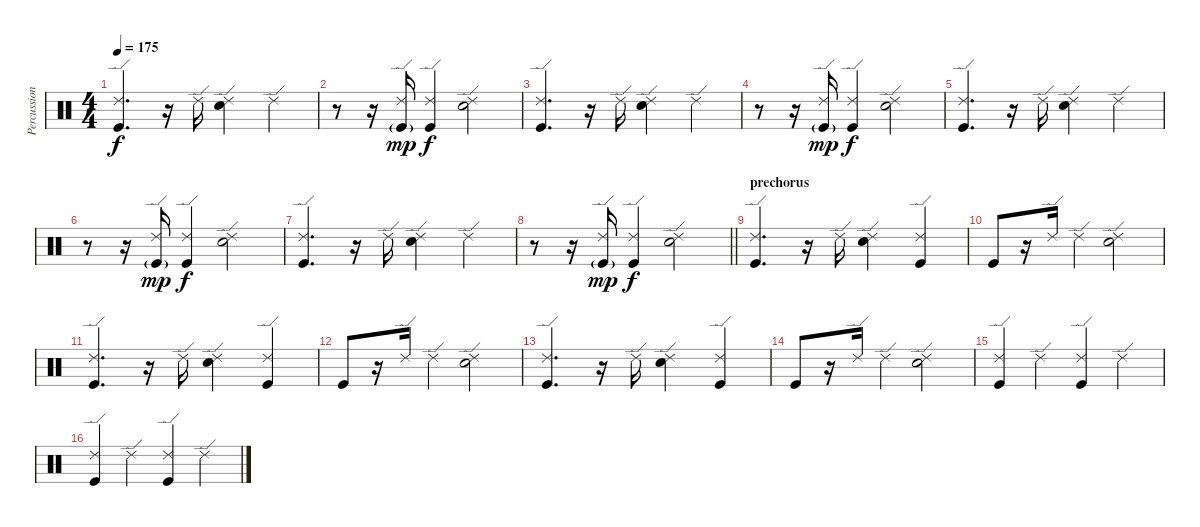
\track ("Percussion" "Percussion") {instrument percussion}
\staff {score}
\articulation defaults
\ts (4 4)
\tempo 175
\clef neutral
\ks c
("Ride (edge) 2" "Kick (hit)").4{d dy f} r.16 "Ride (edge) 2".16 ("Ride (edge) 2" "Hand Clap (hit)").4 "Ride (edge) 2".4 |
r.8 r.16 ("Ride (edge) 2" "Kick (hit)"{g}).16{dy mp} ("Ride (edge) 2" "Kick (hit)").4{dy f} ("Ride (edge) 2" "Hand Clap (hit)").2 |
("Ride (edge) 2" "Kick (hit)").4{d} r.16 "Ride (edge) 2".16 ("Ride (edge) 2" "Hand Clap (hit)").4 "Ride (edge) 2".4 |
r.8 r.16 ("Ride (edge) 2" "Kick (hit)"{g}).16{dy mp} ("Ride (edge) 2" "Kick (hit)").4{dy f} ("Ride (edge) 2" "Hand Clap (hit)").2 |
("Ride (edge) 2" "Kick (hit)").4{d} r.16 "Ride (edge) 2".16 ("Ride (edge) 2" "Hand Clap (hit)").4 "Ride (edge) 2".4 |
r.8 r.16 ("Ride (edge) 2" "Kick (hit)"{g}).16{dy mp} ("Ride (edge) 2" "Kick (hit)").4{dy f} ("Ride (edge) 2" "Hand Clap (hit)").2 |
("Ride (edge) 2" "Kick (hit)").4{d} r.16 "Ride (edge) 2".16 ("Ride (edge) 2" "Hand Clap (hit)").4 "Ride (edge) 2".4 |
\barLineRight lightlight
r.8 r.16 ("Ride (edge) 2" "Kick (hit)"{g}).16{dy mp} ("Ride (edge) 2" "Kick (hit)").4{dy f} ("Ride (edge) 2" "Hand Clap (hit)").2 |
\section ("" "prechorus")
("Ride (edge) 2" "Kick (hit)").4{d} r.16 "Ride (edge) 2".16 ("Ride (edge) 2" "Hand Clap (hit)").4 ("Ride (edge) 2" "Kick (hit)").4 |
"Kick (hit)".8 r.16 "Ride (edge) 2".16 "Ride (edge) 2".4 ("Ride (edge) 2" "Hand Clap (hit)").2 |
("Ride (edge) 2" "Kick (hit)").4{d} r.16 "Ride (edge) 2".16 ("Ride (edge) 2" "Hand Clap (hit)").4 ("Ride (edge) 2" "Kick (hit)").4 |
"Kick (hit)".8 r.16 "Ride (edge) 2".16 "Ride (edge) 2".4 ("Ride (edge) 2" "Hand Clap (hit)").2 |
("Ride (edge) 2" "Kick (hit)").4{d} r.16 "Ride (edge) 2".16 ("Ride (edge) 2" "Hand Clap (hit)").4 ("Ride (edge) 2" "Kick (hit)").4 |
"Kick (hit)".8 r.16 "Ride (edge) 2".16 "Ride (edge) 2".4 ("Ride (edge) 2" "Hand Clap (hit)").2 |
("Ride (edge) 2" "Kick (hit)").4 "Ride (edge) 2".4 ("Ride (edge) 2" "Kick (hit)").4 "Ride (edge) 2".4 |
("Ride (edge) 2" "Kick (hit)").4 "Ride (edge) 2".4 ("Ride (edge) 2" "Kick (hit)").4 "Ride (edge) 2".4
